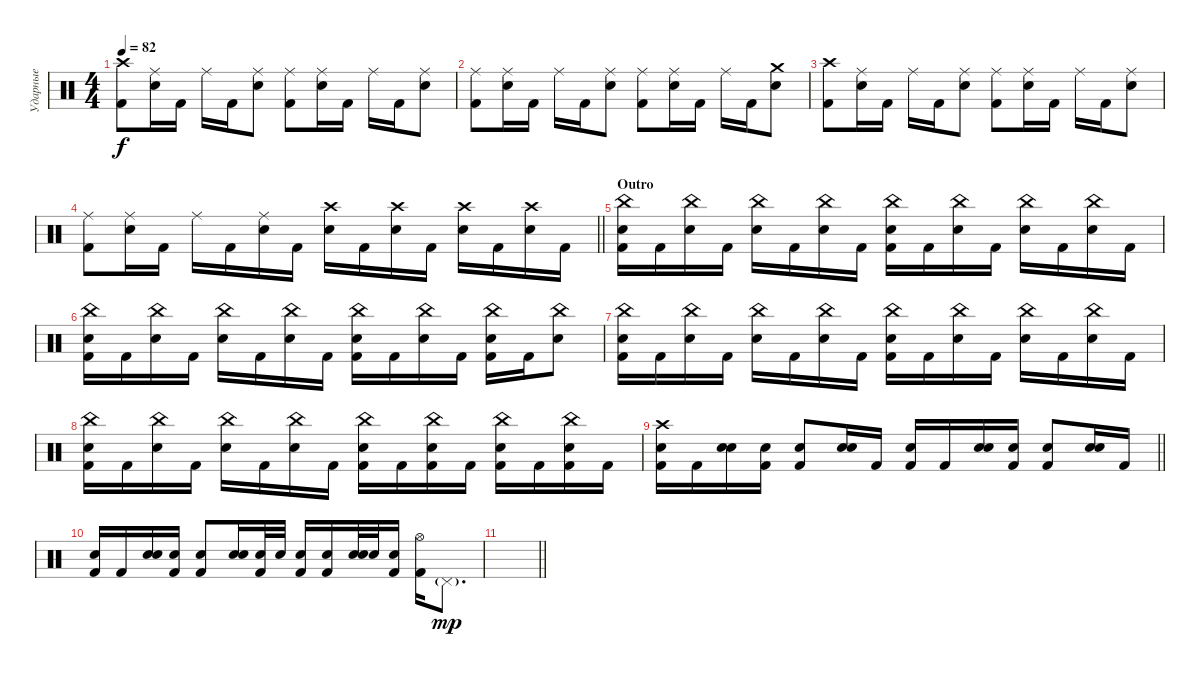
\track ("Ударные" "Ударные") {instrument percussion}
\staff {score}
\articulation defaults
\ts (4 4)
\tempo 82
\clef neutral
\ks c
("Crash high (hit)" "Kick (hit) 2").8{dy f} ("Ride (middle)" "Snare (hit) 2").16 "Kick (hit) 2".16 "Ride (middle)".16 "Kick (hit) 2".16 ("Ride (middle)" "Snare (hit) 2").8 ("Ride (middle)" "Kick (hit) 2").8 ("Ride (middle)" "Snare (hit) 2").16 "Kick (hit) 2".16 "Ride (middle)".16 "Kick (hit) 2".16 ("Ride (middle)" "Snare (hit) 2").8 |
("Ride (middle)" "Kick (hit) 2").8 ("Ride (middle)" "Snare (hit) 2").16 "Kick (hit) 2".16 "Ride (middle)".16 "Kick (hit) 2".16 ("Ride (middle)" "Snare (hit) 2").8 ("Ride (middle)" "Kick (hit) 2").8 ("Ride (middle)" "Snare (hit) 2").16 "Kick (hit) 2".16 "Ride (middle)".16 "Kick (hit) 2".16 ("Crash medium (hit)" "Snare (hit) 2").8 |
("Crash high (hit)" "Kick (hit) 2").8 ("Ride (middle)" "Snare (hit) 2").16 "Kick (hit) 2".16 "Ride (middle)".16 "Kick (hit) 2".16 ("Ride (middle)" "Snare (hit) 2").8 ("Ride (middle)" "Kick (hit) 2").8 ("Ride (middle)" "Snare (hit) 2").16 "Kick (hit) 2".16 "Ride (middle)".16 "Kick (hit) 2".16 ("Ride (middle)" "Snare (hit) 2").8 |
\barLineRight lightlight
("Ride (middle)" "Kick (hit) 2").8 ("Ride (middle)" "Snare (hit) 2").16 "Kick (hit) 2".16 "Ride (middle)".16 "Kick (hit) 2".16 ("Ride (middle)" "Snare (hit) 2").16 "Kick (hit) 2".16 ("Crash high (hit)" "Snare (hit) 2").16 "Kick (hit) 2".16 ("Crash high (hit)" "Snare (hit) 2").16 "Kick (hit) 2".16 ("Crash high (hit)" "Snare (hit) 2").16 "Kick (hit) 2".16 ("Crash high (hit)" "Snare (hit) 2").16 "Kick (hit) 2".16 |
\section ("" "Outro")
("China (hit)" "Snare (hit) 2" "Kick (hit) 2").16 "Kick (hit) 2".16 ("China (hit)" "Snare (hit) 2").16 "Kick (hit) 2".16 ("China (hit)" "Snare (hit) 2").16 "Kick (hit) 2".16 ("China (hit)" "Snare (hit) 2").16 "Kick (hit) 2".16 ("China (hit)" "Snare (hit) 2" "Kick (hit) 2").16 "Kick (hit) 2".16 ("China (hit)" "Snare (hit) 2").16 "Kick (hit) 2".16 ("China (hit)" "Snare (hit) 2").16 "Kick (hit) 2".16 ("China (hit)" "Snare (hit) 2").16 "Kick (hit) 2".16 |
("China (hit)" "Snare (hit) 2" "Kick (hit) 2").16 "Kick (hit) 2".16 ("China (hit)" "Snare (hit) 2").16 "Kick (hit) 2".16 ("China (hit)" "Snare (hit) 2").16 "Kick (hit) 2".16 ("China (hit)" "Snare (hit) 2").16 "Kick (hit) 2".16 ("China (hit)" "Snare (hit) 2" "Kick (hit) 2").16 "Kick (hit) 2".16 ("China (hit)" "Snare (hit) 2").16 "Kick (hit) 2".16 ("China (hit)" "Snare (hit) 2" "Kick (hit) 2").16 "Kick (hit) 2".16 ("China (hit)" "Snare (hit) 2").8 |
("China (hit)" "Snare (hit) 2" "Kick (hit) 2").16 "Kick (hit) 2".16 ("China (hit)" "Snare (hit) 2").16 "Kick (hit) 2".16 ("China (hit)" "Snare (hit) 2").16 "Kick (hit) 2".16 ("China (hit)" "Snare (hit) 2").16 "Kick (hit) 2".16 ("China (hit)" "Snare (hit) 2" "Kick (hit) 2").16 "Kick (hit) 2".16 ("China (hit)" "Snare (hit) 2").16 "Kick (hit) 2".16 ("China (hit)" "Snare (hit) 2").16 "Kick (hit) 2".16 ("China (hit)" "Snare (hit) 2").16 "Kick (hit) 2".16 |
("China (hit)" "Snare (hit) 2" "Kick (hit) 2").16 "Kick (hit) 2".16 ("China (hit)" "Snare (hit) 2").16 "Kick (hit) 2".16 ("China (hit)" "Snare (hit) 2").16 "Kick (hit) 2".16 ("China (hit)" "Snare (hit) 2").16 "Kick (hit) 2".16 ("China (hit)" "Snare (hit) 2" "Kick (hit) 2").16 "Kick (hit) 2".16 ("China (hit)" "Snare (hit) 2" "Kick (hit) 2").16 "Kick (hit) 2".16 ("China (hit)" "Snare (hit) 2" "Kick (hit) 2").16 "Kick (hit) 2".16 ("China (hit)" "Snare (hit) 2" "Kick (hit) 2").16 "Kick (hit) 2".16 |
\barLineRight lightlight
("Crash high (hit)" "Snare (hit) 2" "Kick (hit) 2").16 "Kick (hit) 2".16 ("Hand Clap (hit)" "Snare (hit) 2").16 ("Hand Clap (hit)" "Kick (hit) 2").16 ("Snare (hit) 2" "Kick (hit) 2").8 ("Hand Clap (hit)" "Snare (hit) 2").16 "Kick (hit) 2".16 ("Snare (hit) 2" "Kick (hit) 2").16 "Kick (hit) 2".16 ("Hand Clap (hit)" "Snare (hit) 2").16 ("Hand Clap (hit)" "Kick (hit) 2").16 ("Snare (hit) 2" "Kick (hit) 2").8 ("Hand Clap (hit)" "Snare (hit) 2").16 "Kick (hit) 2".16 |
("Snare (hit) 2" "Kick (hit) 2").16 "Kick (hit) 2".16 ("Hand Clap (hit)" "Snare (hit) 2").16 ("Hand Clap (hit)" "Kick (hit) 2").16 ("Snare (hit) 2" "Kick (hit) 2").8 ("Hand Clap (hit)" "Snare (hit) 2").16 ("Snare (hit) 2" "Kick (hit) 2").32 "Snare (hit) 2".32 ("Snare (hit) 2" "Kick (hit) 2").16 ("Snare (hit) 2" "Kick (hit) 2").16 ("Hand Clap (hit)" "Snare (hit) 2").32 "Snare (hit) 2".32 ("Hand Clap (hit)" "Kick (hit) 2").16 ("Hi-Hat (open)" "Kick (hit) 2").16 "Pedal Hi-Hat (hit)"{g}.8{d dy mp} |
\barLineRight lightlight
